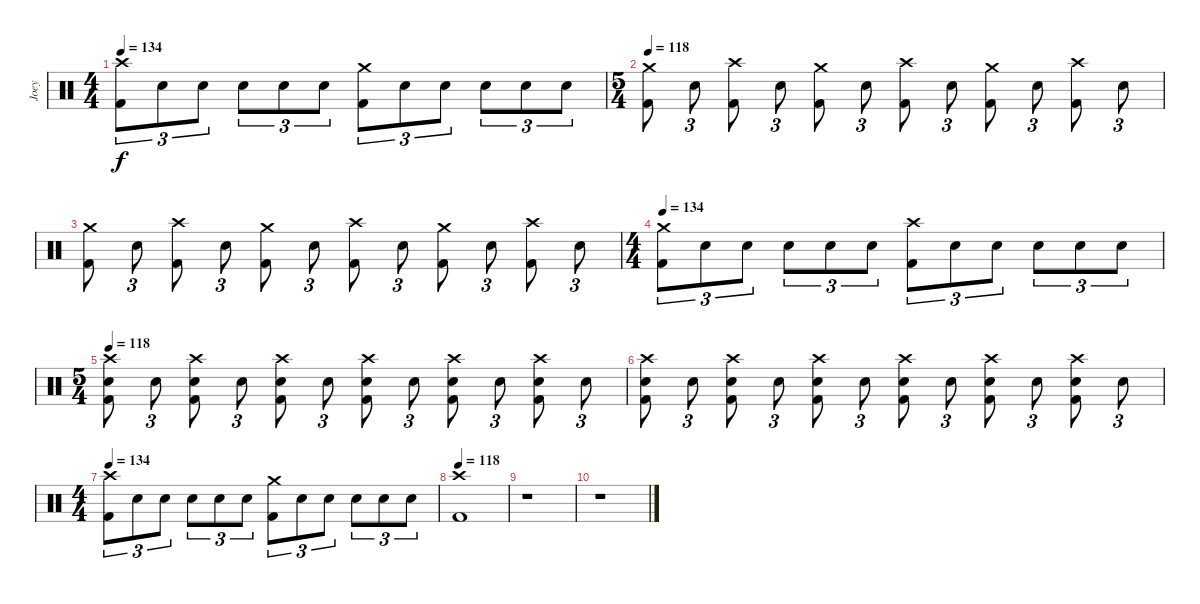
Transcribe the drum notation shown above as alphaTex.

\track ("Joey" "Joey") {instrument percussion}
\staff {score}
\articulation defaults
\ts (4 4)
\tempo 134
\clef neutral
\ks c
("Crash high (hit)" "Kick (hit) 2").8{tu (3 2) dy f} "Electric Snare (hit)".8{tu (3 2)} "Electric Snare (hit)".8{tu (3 2)} "Electric Snare (hit)".8{tu (3 2)} "Electric Snare (hit)".8{tu (3 2)} "Electric Snare (hit)".8{tu (3 2)} ("Crash medium (hit)" "Kick (hit) 2").8{tu (3 2)} "Electric Snare (hit)".8{tu (3 2)} "Electric Snare (hit)".8{tu (3 2)} "Electric Snare (hit)".8{tu (3 2)} "Electric Snare (hit)".8{tu (3 2)} "Electric Snare (hit)".8{tu (3 2)} |
\ts (5 4)
\tempo 118
("Crash medium (hit)" "Kick (hit) 2").8 "Electric Snare (hit)".8{tu (3 2)} ("Crash high (hit)" "Kick (hit) 2").8 "Electric Snare (hit)".8{tu (3 2)} ("Crash medium (hit)" "Kick (hit) 2").8 "Electric Snare (hit)".8{tu (3 2)} ("Crash high (hit)" "Kick (hit) 2").8 "Electric Snare (hit)".8{tu (3 2)} ("Crash medium (hit)" "Kick (hit) 2").8 "Electric Snare (hit)".8{tu (3 2)} ("Crash high (hit)" "Kick (hit) 2").8 "Electric Snare (hit)".8{tu (3 2)} |
("Crash medium (hit)" "Kick (hit) 2").8 "Electric Snare (hit)".8{tu (3 2)} ("Crash high (hit)" "Kick (hit) 2").8 "Electric Snare (hit)".8{tu (3 2)} ("Crash medium (hit)" "Kick (hit) 2").8 "Electric Snare (hit)".8{tu (3 2)} ("Crash high (hit)" "Kick (hit) 2").8 "Electric Snare (hit)".8{tu (3 2)} ("Crash medium (hit)" "Kick (hit) 2").8 "Electric Snare (hit)".8{tu (3 2)} ("Crash high (hit)" "Kick (hit) 2").8 "Electric Snare (hit)".8{tu (3 2)} |
\ts (4 4)
\tempo 134
("Crash medium (hit)" "Kick (hit) 2").8{tu (3 2)} "Electric Snare (hit)".8{tu (3 2)} "Electric Snare (hit)".8{tu (3 2)} "Electric Snare (hit)".8{tu (3 2)} "Electric Snare (hit)".8{tu (3 2)} "Electric Snare (hit)".8{tu (3 2)} ("Crash high (hit)" "Kick (hit) 2").8{tu (3 2)} "Electric Snare (hit)".8{tu (3 2)} "Electric Snare (hit)".8{tu (3 2)} "Electric Snare (hit)".8{tu (3 2)} "Electric Snare (hit)".8{tu (3 2)} "Electric Snare (hit)".8{tu (3 2)} |
\ts (5 4)
\tempo 118
("Crash high (hit)" "Electric Snare (hit)" "Kick (hit) 2").8 "Electric Snare (hit)".8{tu (3 2)} ("Crash high (hit)" "Electric Snare (hit)" "Kick (hit) 2").8 "Electric Snare (hit)".8{tu (3 2)} ("Crash high (hit)" "Electric Snare (hit)" "Kick (hit) 2").8 "Electric Snare (hit)".8{tu (3 2)} ("Crash high (hit)" "Electric Snare (hit)" "Kick (hit) 2").8 "Electric Snare (hit)".8{tu (3 2)} ("Crash high (hit)" "Electric Snare (hit)" "Kick (hit) 2").8 "Electric Snare (hit)".8{tu (3 2)} ("Crash high (hit)" "Electric Snare (hit)" "Kick (hit) 2").8 "Electric Snare (hit)".8{tu (3 2)} |
("Crash high (hit)" "Electric Snare (hit)" "Kick (hit) 2").8 "Electric Snare (hit)".8{tu (3 2)} ("Crash high (hit)" "Electric Snare (hit)" "Kick (hit) 2").8 "Electric Snare (hit)".8{tu (3 2)} ("Crash high (hit)" "Electric Snare (hit)" "Kick (hit) 2").8 "Electric Snare (hit)".8{tu (3 2)} ("Crash high (hit)" "Electric Snare (hit)" "Kick (hit) 2").8 "Electric Snare (hit)".8{tu (3 2)} ("Crash high (hit)" "Electric Snare (hit)" "Kick (hit) 2").8 "Electric Snare (hit)".8{tu (3 2)} ("Crash high (hit)" "Electric Snare (hit)" "Kick (hit) 2").8 "Electric Snare (hit)".8{tu (3 2)} |
\ts (4 4)
\tempo 134
("Crash high (hit)" "Kick (hit) 2").8{tu (3 2)} "Electric Snare (hit)".8{tu (3 2)} "Electric Snare (hit)".8{tu (3 2)} "Electric Snare (hit)".8{tu (3 2)} "Electric Snare (hit)".8{tu (3 2)} "Electric Snare (hit)".8{tu (3 2)} ("Crash medium (hit)" "Kick (hit) 2").8{tu (3 2)} "Electric Snare (hit)".8{tu (3 2)} "Electric Snare (hit)".8{tu (3 2)} "Electric Snare (hit)".8{tu (3 2)} "Electric Snare (hit)".8{tu (3 2)} "Electric Snare (hit)".8{tu (3 2)} |
\tempo 118
("Crash high (hit)" "Kick (hit) 2").1 |
r.1 |
r.1
